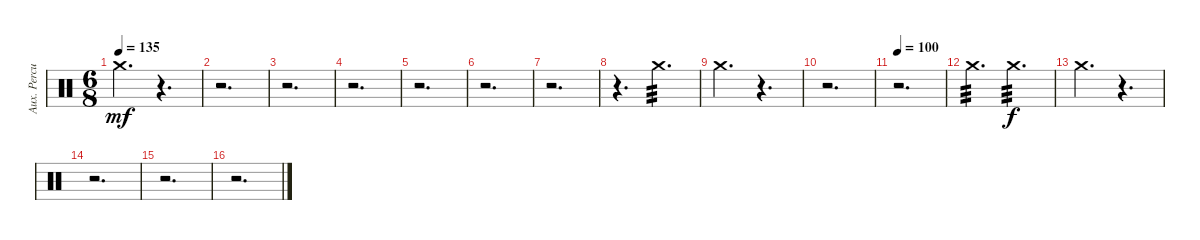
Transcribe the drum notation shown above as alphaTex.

\track ("Aux. Percussion" "Aux. Percu") {instrument percussion}
\staff {score}
\articulation defaults
\ts (6 8)
\tempo 135
\clef neutral
\ks c "Crash medium (hit)".4{d dy mf}
r.4{d} |
r.2{d} |
r.2{d} |
r.2{d} |
r.2{d} |
r.2{d} |
r.2{d} |
r.4{d} "Crash medium (hit)".4{d tp 3} |
"Crash medium (hit)".4{d} r.4{d} |
r.2{d} |
\tempo 100
r.2{d} |
"Crash medium (hit)".4{d tp 3} "Crash medium (hit)".4{d tp 3 dy f} |
"Crash medium (hit)".4{d} r.4{d} |
r.2{d} |
r.2{d} |
r.2{d}
